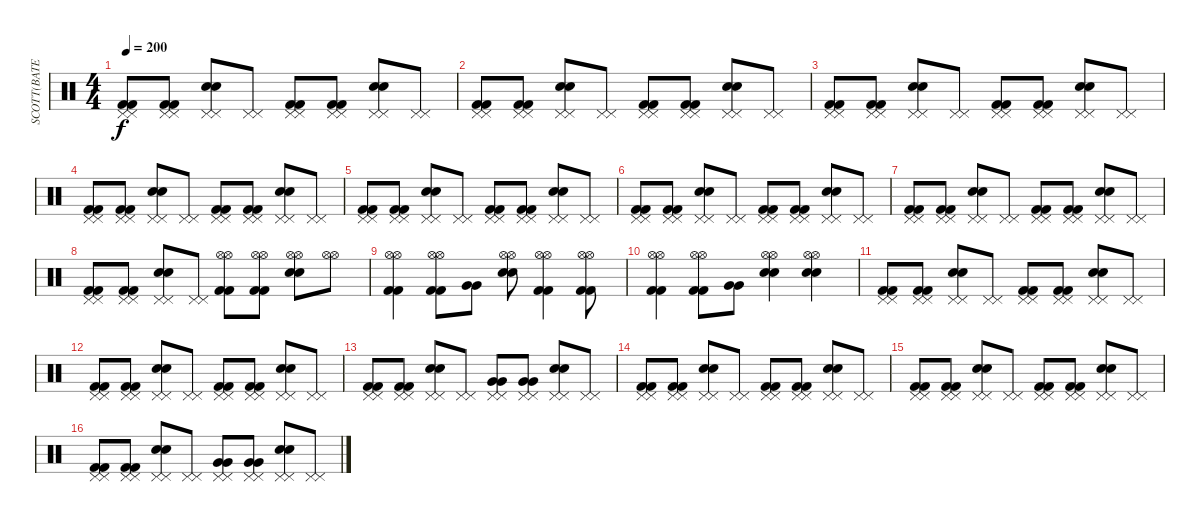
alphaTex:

\track ("SCOTT(BATERIA)" "SCOTT(BATE") {instrument percussion}
\staff {score}
\articulation defaults
\ts (4 4)
\tempo 200
\clef neutral
\ks c
("Kick (hit) 2" "Kick (hit) 2" "Pedal Hi-Hat (hit)" "Pedal Hi-Hat (hit)").8{dy f} ("Kick (hit) 2" "Kick (hit) 2" "Pedal Hi-Hat (hit)" "Pedal Hi-Hat (hit)").8 ("Snare (hit) 2" "Snare (hit) 2" "Pedal Hi-Hat (hit)" "Pedal Hi-Hat (hit)").8 ("Pedal Hi-Hat (hit)" "Pedal Hi-Hat (hit)").8 ("Kick (hit) 2" "Kick (hit) 2" "Pedal Hi-Hat (hit)" "Pedal Hi-Hat (hit)").8 ("Kick (hit) 2" "Kick (hit) 2" "Pedal Hi-Hat (hit)" "Pedal Hi-Hat (hit)").8 ("Snare (hit) 2" "Snare (hit) 2" "Pedal Hi-Hat (hit)" "Pedal Hi-Hat (hit)").8 ("Pedal Hi-Hat (hit)" "Pedal Hi-Hat (hit)").8 |
("Kick (hit) 2" "Kick (hit) 2" "Pedal Hi-Hat (hit)" "Pedal Hi-Hat (hit)").8 ("Kick (hit) 2" "Kick (hit) 2" "Pedal Hi-Hat (hit)" "Pedal Hi-Hat (hit)").8 ("Snare (hit) 2" "Snare (hit) 2" "Pedal Hi-Hat (hit)" "Pedal Hi-Hat (hit)").8 ("Pedal Hi-Hat (hit)" "Pedal Hi-Hat (hit)").8 ("Kick (hit) 2" "Kick (hit) 2" "Pedal Hi-Hat (hit)" "Pedal Hi-Hat (hit)").8 ("Kick (hit) 2" "Kick (hit) 2" "Pedal Hi-Hat (hit)" "Pedal Hi-Hat (hit)").8 ("Snare (hit) 2" "Snare (hit) 2" "Pedal Hi-Hat (hit)" "Pedal Hi-Hat (hit)").8 ("Pedal Hi-Hat (hit)" "Pedal Hi-Hat (hit)").8 |
("Kick (hit) 2" "Kick (hit) 2" "Pedal Hi-Hat (hit)" "Pedal Hi-Hat (hit)").8 ("Kick (hit) 2" "Kick (hit) 2" "Pedal Hi-Hat (hit)" "Pedal Hi-Hat (hit)").8 ("Snare (hit) 2" "Snare (hit) 2" "Pedal Hi-Hat (hit)" "Pedal Hi-Hat (hit)").8 ("Pedal Hi-Hat (hit)" "Pedal Hi-Hat (hit)").8 ("Kick (hit) 2" "Kick (hit) 2" "Pedal Hi-Hat (hit)" "Pedal Hi-Hat (hit)").8 ("Kick (hit) 2" "Kick (hit) 2" "Pedal Hi-Hat (hit)" "Pedal Hi-Hat (hit)").8 ("Snare (hit) 2" "Snare (hit) 2" "Pedal Hi-Hat (hit)" "Pedal Hi-Hat (hit)").8 ("Pedal Hi-Hat (hit)" "Pedal Hi-Hat (hit)").8 |
("Kick (hit) 2" "Kick (hit) 2" "Pedal Hi-Hat (hit)" "Pedal Hi-Hat (hit)").8 ("Kick (hit) 2" "Kick (hit) 2" "Pedal Hi-Hat (hit)" "Pedal Hi-Hat (hit)").8 ("Snare (hit) 2" "Snare (hit) 2" "Pedal Hi-Hat (hit)" "Pedal Hi-Hat (hit)").8 ("Pedal Hi-Hat (hit)" "Pedal Hi-Hat (hit)").8 ("Kick (hit) 2" "Kick (hit) 2" "Pedal Hi-Hat (hit)" "Pedal Hi-Hat (hit)").8 ("Kick (hit) 2" "Kick (hit) 2" "Pedal Hi-Hat (hit)" "Pedal Hi-Hat (hit)").8 ("Snare (hit) 2" "Snare (hit) 2" "Pedal Hi-Hat (hit)" "Pedal Hi-Hat (hit)").8 ("Pedal Hi-Hat (hit)" "Pedal Hi-Hat (hit)").8 |
("Kick (hit) 2" "Kick (hit) 2" "Pedal Hi-Hat (hit)" "Pedal Hi-Hat (hit)").8 ("Kick (hit) 2" "Kick (hit) 2" "Pedal Hi-Hat (hit)" "Pedal Hi-Hat (hit)").8 ("Snare (hit) 2" "Snare (hit) 2" "Pedal Hi-Hat (hit)" "Pedal Hi-Hat (hit)").8 ("Pedal Hi-Hat (hit)" "Pedal Hi-Hat (hit)").8 ("Kick (hit) 2" "Kick (hit) 2" "Pedal Hi-Hat (hit)" "Pedal Hi-Hat (hit)").8 ("Kick (hit) 2" "Kick (hit) 2" "Pedal Hi-Hat (hit)" "Pedal Hi-Hat (hit)").8 ("Snare (hit) 2" "Snare (hit) 2" "Pedal Hi-Hat (hit)" "Pedal Hi-Hat (hit)").8 ("Pedal Hi-Hat (hit)" "Pedal Hi-Hat (hit)").8 |
("Kick (hit) 2" "Kick (hit) 2" "Pedal Hi-Hat (hit)" "Pedal Hi-Hat (hit)").8 ("Kick (hit) 2" "Kick (hit) 2" "Pedal Hi-Hat (hit)" "Pedal Hi-Hat (hit)").8 ("Snare (hit) 2" "Snare (hit) 2" "Pedal Hi-Hat (hit)" "Pedal Hi-Hat (hit)").8 ("Pedal Hi-Hat (hit)" "Pedal Hi-Hat (hit)").8 ("Kick (hit) 2" "Kick (hit) 2" "Pedal Hi-Hat (hit)" "Pedal Hi-Hat (hit)").8 ("Kick (hit) 2" "Kick (hit) 2" "Pedal Hi-Hat (hit)" "Pedal Hi-Hat (hit)").8 ("Snare (hit) 2" "Snare (hit) 2" "Pedal Hi-Hat (hit)" "Pedal Hi-Hat (hit)").8 ("Pedal Hi-Hat (hit)" "Pedal Hi-Hat (hit)").8 |
("Kick (hit) 2" "Kick (hit) 2" "Pedal Hi-Hat (hit)" "Pedal Hi-Hat (hit)").8 ("Kick (hit) 2" "Kick (hit) 2" "Pedal Hi-Hat (hit)" "Pedal Hi-Hat (hit)").8 ("Snare (hit) 2" "Snare (hit) 2" "Pedal Hi-Hat (hit)" "Pedal Hi-Hat (hit)").8 ("Pedal Hi-Hat (hit)" "Pedal Hi-Hat (hit)").8 ("Kick (hit) 2" "Kick (hit) 2" "Pedal Hi-Hat (hit)" "Pedal Hi-Hat (hit)").8 ("Kick (hit) 2" "Kick (hit) 2" "Pedal Hi-Hat (hit)" "Pedal Hi-Hat (hit)").8 ("Snare (hit) 2" "Snare (hit) 2" "Pedal Hi-Hat (hit)" "Pedal Hi-Hat (hit)").8 ("Pedal Hi-Hat (hit)" "Pedal Hi-Hat (hit)").8 |
("Kick (hit) 2" "Kick (hit) 2" "Pedal Hi-Hat (hit)" "Pedal Hi-Hat (hit)").8 ("Kick (hit) 2" "Kick (hit) 2" "Pedal Hi-Hat (hit)" "Pedal Hi-Hat (hit)").8 ("Snare (hit) 2" "Snare (hit) 2" "Pedal Hi-Hat (hit)" "Pedal Hi-Hat (hit)").8 ("Pedal Hi-Hat (hit)" "Pedal Hi-Hat (hit)").8 ("Kick (hit) 2" "Kick (hit) 2" "Hi-Hat (open)" "Hi-Hat (open)").8 ("Kick (hit) 2" "Kick (hit) 2" "Hi-Hat (open)" "Hi-Hat (open)").8 ("Snare (hit) 2" "Snare (hit) 2" "Hi-Hat (open)" "Hi-Hat (open)").8 ("Hi-Hat (open)" "Hi-Hat (open)").8 |
("Kick (hit) 2" "Kick (hit) 2" "Hi-Hat (open)" "Hi-Hat (open)").4 ("Kick (hit) 2" "Kick (hit) 2" "Hi-Hat (open)" "Hi-Hat (open)").8 ("Very Low Tom (hit)" "Very Low Tom (hit)").8 ("Snare (hit) 2" "Snare (hit) 2" "Hi-Hat (open)" "Hi-Hat (open)").8 ("Kick (hit) 2" "Kick (hit) 2" "Hi-Hat (open)" "Hi-Hat (open)").4 ("Kick (hit) 2" "Kick (hit) 2" "Hi-Hat (open)" "Hi-Hat (open)").8 |
("Kick (hit) 2" "Kick (hit) 2" "Hi-Hat (open)" "Hi-Hat (open)").4 ("Kick (hit) 2" "Kick (hit) 2" "Hi-Hat (open)" "Hi-Hat (open)").8 ("Very Low Tom (hit)" "Very Low Tom (hit)").8 ("Snare (hit) 2" "Snare (hit) 2" "Hi-Hat (open)" "Hi-Hat (open)").4 ("Snare (hit) 2" "Snare (hit) 2" "Hi-Hat (open)" "Hi-Hat (open)").4 |
("Kick (hit) 2" "Kick (hit) 2" "Pedal Hi-Hat (hit)" "Pedal Hi-Hat (hit)").8 ("Kick (hit) 2" "Kick (hit) 2" "Pedal Hi-Hat (hit)" "Pedal Hi-Hat (hit)").8 ("Snare (hit) 2" "Snare (hit) 2" "Pedal Hi-Hat (hit)" "Pedal Hi-Hat (hit)").8 ("Pedal Hi-Hat (hit)" "Pedal Hi-Hat (hit)").8 ("Kick (hit) 2" "Kick (hit) 2" "Pedal Hi-Hat (hit)" "Pedal Hi-Hat (hit)").8 ("Kick (hit) 2" "Kick (hit) 2" "Pedal Hi-Hat (hit)" "Pedal Hi-Hat (hit)").8 ("Snare (hit) 2" "Snare (hit) 2" "Pedal Hi-Hat (hit)" "Pedal Hi-Hat (hit)").8 ("Pedal Hi-Hat (hit)" "Pedal Hi-Hat (hit)").8 |
("Kick (hit) 2" "Kick (hit) 2" "Pedal Hi-Hat (hit)" "Pedal Hi-Hat (hit)").8 ("Kick (hit) 2" "Kick (hit) 2" "Pedal Hi-Hat (hit)" "Pedal Hi-Hat (hit)").8 ("Snare (hit) 2" "Snare (hit) 2" "Pedal Hi-Hat (hit)" "Pedal Hi-Hat (hit)").8 ("Pedal Hi-Hat (hit)" "Pedal Hi-Hat (hit)").8 ("Kick (hit) 2" "Kick (hit) 2" "Pedal Hi-Hat (hit)" "Pedal Hi-Hat (hit)").8 ("Kick (hit) 2" "Kick (hit) 2" "Pedal Hi-Hat (hit)" "Pedal Hi-Hat (hit)").8 ("Snare (hit) 2" "Snare (hit) 2" "Pedal Hi-Hat (hit)" "Pedal Hi-Hat (hit)").8 ("Pedal Hi-Hat (hit)" "Pedal Hi-Hat (hit)").8 |
("Kick (hit) 2" "Kick (hit) 2" "Pedal Hi-Hat (hit)" "Pedal Hi-Hat (hit)").8 ("Kick (hit) 2" "Kick (hit) 2" "Pedal Hi-Hat (hit)" "Pedal Hi-Hat (hit)").8 ("Snare (hit) 2" "Snare (hit) 2" "Pedal Hi-Hat (hit)" "Pedal Hi-Hat (hit)").8 ("Pedal Hi-Hat (hit)" "Pedal Hi-Hat (hit)").8 ("Very Low Tom (hit)" "Very Low Tom (hit)" "Pedal Hi-Hat (hit)" "Pedal Hi-Hat (hit)").8 ("Very Low Tom (hit)" "Very Low Tom (hit)" "Pedal Hi-Hat (hit)" "Pedal Hi-Hat (hit)").8 ("Snare (hit) 2" "Snare (hit) 2" "Pedal Hi-Hat (hit)" "Pedal Hi-Hat (hit)").8 ("Pedal Hi-Hat (hit)" "Pedal Hi-Hat (hit)").8 |
("Kick (hit) 2" "Kick (hit) 2" "Pedal Hi-Hat (hit)" "Pedal Hi-Hat (hit)").8 ("Kick (hit) 2" "Kick (hit) 2" "Pedal Hi-Hat (hit)" "Pedal Hi-Hat (hit)").8 ("Snare (hit) 2" "Snare (hit) 2" "Pedal Hi-Hat (hit)" "Pedal Hi-Hat (hit)").8 ("Pedal Hi-Hat (hit)" "Pedal Hi-Hat (hit)").8 ("Kick (hit) 2" "Kick (hit) 2" "Pedal Hi-Hat (hit)" "Pedal Hi-Hat (hit)").8 ("Kick (hit) 2" "Kick (hit) 2" "Pedal Hi-Hat (hit)" "Pedal Hi-Hat (hit)").8 ("Snare (hit) 2" "Snare (hit) 2" "Pedal Hi-Hat (hit)" "Pedal Hi-Hat (hit)").8 ("Pedal Hi-Hat (hit)" "Pedal Hi-Hat (hit)").8 |
("Kick (hit) 2" "Kick (hit) 2" "Pedal Hi-Hat (hit)" "Pedal Hi-Hat (hit)").8 ("Kick (hit) 2" "Kick (hit) 2" "Pedal Hi-Hat (hit)" "Pedal Hi-Hat (hit)").8 ("Snare (hit) 2" "Snare (hit) 2" "Pedal Hi-Hat (hit)" "Pedal Hi-Hat (hit)").8 ("Pedal Hi-Hat (hit)" "Pedal Hi-Hat (hit)").8 ("Kick (hit) 2" "Kick (hit) 2" "Pedal Hi-Hat (hit)" "Pedal Hi-Hat (hit)").8 ("Kick (hit) 2" "Kick (hit) 2" "Pedal Hi-Hat (hit)" "Pedal Hi-Hat (hit)").8 ("Snare (hit) 2" "Snare (hit) 2" "Pedal Hi-Hat (hit)" "Pedal Hi-Hat (hit)").8 ("Pedal Hi-Hat (hit)" "Pedal Hi-Hat (hit)").8 |
("Kick (hit) 2" "Kick (hit) 2" "Pedal Hi-Hat (hit)" "Pedal Hi-Hat (hit)").8 ("Kick (hit) 2" "Kick (hit) 2" "Pedal Hi-Hat (hit)" "Pedal Hi-Hat (hit)").8 ("Snare (hit) 2" "Snare (hit) 2" "Pedal Hi-Hat (hit)" "Pedal Hi-Hat (hit)").8 ("Pedal Hi-Hat (hit)" "Pedal Hi-Hat (hit)").8 ("Very Low Tom (hit)" "Very Low Tom (hit)" "Pedal Hi-Hat (hit)" "Pedal Hi-Hat (hit)").8 ("Very Low Tom (hit)" "Very Low Tom (hit)" "Pedal Hi-Hat (hit)" "Pedal Hi-Hat (hit)").8 ("Snare (hit) 2" "Snare (hit) 2" "Pedal Hi-Hat (hit)" "Pedal Hi-Hat (hit)").8 ("Pedal Hi-Hat (hit)" "Pedal Hi-Hat (hit)").8
